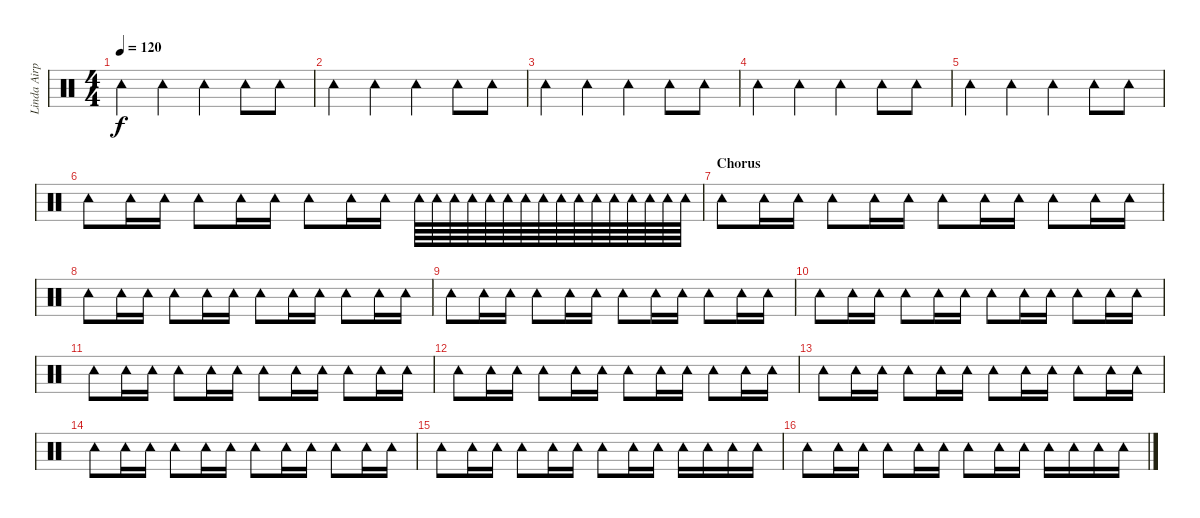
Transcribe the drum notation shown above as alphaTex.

\track ("Linda Airplane" "Linda Airp") {instrument percussion}
\staff {score}
\articulation defaults
\ts (4 4)
\tempo 120
\clef neutral
\ks c "Tambourine (hit)".4{dy f} "Tambourine (hit)".4 "Tambourine (hit)".4 "Tambourine (hit)".8 "Tambourine (hit)".8
|
"Tambourine (hit)".4 "Tambourine (hit)".4 "Tambourine (hit)".4 "Tambourine (hit)".8 "Tambourine (hit)".8 |
"Tambourine (hit)".4 "Tambourine (hit)".4 "Tambourine (hit)".4 "Tambourine (hit)".8 "Tambourine (hit)".8 |
"Tambourine (hit)".4 "Tambourine (hit)".4 "Tambourine (hit)".4 "Tambourine (hit)".8 "Tambourine (hit)".8 |
"Tambourine (hit)".4 "Tambourine (hit)".4 "Tambourine (hit)".4 "Tambourine (hit)".8 "Tambourine (hit)".8 |
"Tambourine (hit)".8 "Tambourine (hit)".16 "Tambourine (hit)".16 "Tambourine (hit)".8 "Tambourine (hit)".16 "Tambourine (hit)".16 "Tambourine (hit)".8 "Tambourine (hit)".16 "Tambourine (hit)".16 "Tambourine (hit)".64 "Tambourine (hit)".64 "Tambourine (hit)".64 "Tambourine (hit)".64 "Tambourine (hit)".64 "Tambourine (hit)".64 "Tambourine (hit)".64 "Tambourine (hit)".64 "Tambourine (hit)".64 "Tambourine (hit)".64 "Tambourine (hit)".64 "Tambourine (hit)".64 "Tambourine (hit)".64 "Tambourine (hit)".64 "Tambourine (hit)".64 "Tambourine (hit)".64 |
\section ("" "Chorus")
"Tambourine (hit)".8 "Tambourine (hit)".16 "Tambourine (hit)".16 "Tambourine (hit)".8 "Tambourine (hit)".16 "Tambourine (hit)".16 "Tambourine (hit)".8 "Tambourine (hit)".16 "Tambourine (hit)".16 "Tambourine (hit)".8 "Tambourine (hit)".16 "Tambourine (hit)".16 |
"Tambourine (hit)".8 "Tambourine (hit)".16 "Tambourine (hit)".16 "Tambourine (hit)".8 "Tambourine (hit)".16 "Tambourine (hit)".16 "Tambourine (hit)".8 "Tambourine (hit)".16 "Tambourine (hit)".16 "Tambourine (hit)".8 "Tambourine (hit)".16 "Tambourine (hit)".16 |
"Tambourine (hit)".8 "Tambourine (hit)".16 "Tambourine (hit)".16 "Tambourine (hit)".8 "Tambourine (hit)".16 "Tambourine (hit)".16 "Tambourine (hit)".8 "Tambourine (hit)".16 "Tambourine (hit)".16 "Tambourine (hit)".8 "Tambourine (hit)".16 "Tambourine (hit)".16 |
"Tambourine (hit)".8 "Tambourine (hit)".16 "Tambourine (hit)".16 "Tambourine (hit)".8 "Tambourine (hit)".16 "Tambourine (hit)".16 "Tambourine (hit)".8 "Tambourine (hit)".16 "Tambourine (hit)".16 "Tambourine (hit)".8 "Tambourine (hit)".16 "Tambourine (hit)".16 |
"Tambourine (hit)".8 "Tambourine (hit)".16 "Tambourine (hit)".16 "Tambourine (hit)".8 "Tambourine (hit)".16 "Tambourine (hit)".16 "Tambourine (hit)".8 "Tambourine (hit)".16 "Tambourine (hit)".16 "Tambourine (hit)".8 "Tambourine (hit)".16 "Tambourine (hit)".16 |
"Tambourine (hit)".8 "Tambourine (hit)".16 "Tambourine (hit)".16 "Tambourine (hit)".8 "Tambourine (hit)".16 "Tambourine (hit)".16 "Tambourine (hit)".8 "Tambourine (hit)".16 "Tambourine (hit)".16 "Tambourine (hit)".8 "Tambourine (hit)".16 "Tambourine (hit)".16 |
"Tambourine (hit)".8 "Tambourine (hit)".16 "Tambourine (hit)".16 "Tambourine (hit)".8 "Tambourine (hit)".16 "Tambourine (hit)".16 "Tambourine (hit)".8 "Tambourine (hit)".16 "Tambourine (hit)".16 "Tambourine (hit)".8 "Tambourine (hit)".16 "Tambourine (hit)".16 |
"Tambourine (hit)".8 "Tambourine (hit)".16 "Tambourine (hit)".16 "Tambourine (hit)".8 "Tambourine (hit)".16 "Tambourine (hit)".16 "Tambourine (hit)".8 "Tambourine (hit)".16 "Tambourine (hit)".16 "Tambourine (hit)".8 "Tambourine (hit)".16 "Tambourine (hit)".16 |
"Tambourine (hit)".8 "Tambourine (hit)".16 "Tambourine (hit)".16 "Tambourine (hit)".8 "Tambourine (hit)".16 "Tambourine (hit)".16 "Tambourine (hit)".8 "Tambourine (hit)".16 "Tambourine (hit)".16 "Tambourine (hit)".16 "Tambourine (hit)".16 "Tambourine (hit)".16 "Tambourine (hit)".16 |
"Tambourine (hit)".8 "Tambourine (hit)".16 "Tambourine (hit)".16 "Tambourine (hit)".8 "Tambourine (hit)".16 "Tambourine (hit)".16 "Tambourine (hit)".8 "Tambourine (hit)".16 "Tambourine (hit)".16 "Tambourine (hit)".16 "Tambourine (hit)".16 "Tambourine (hit)".16 "Tambourine (hit)".16
